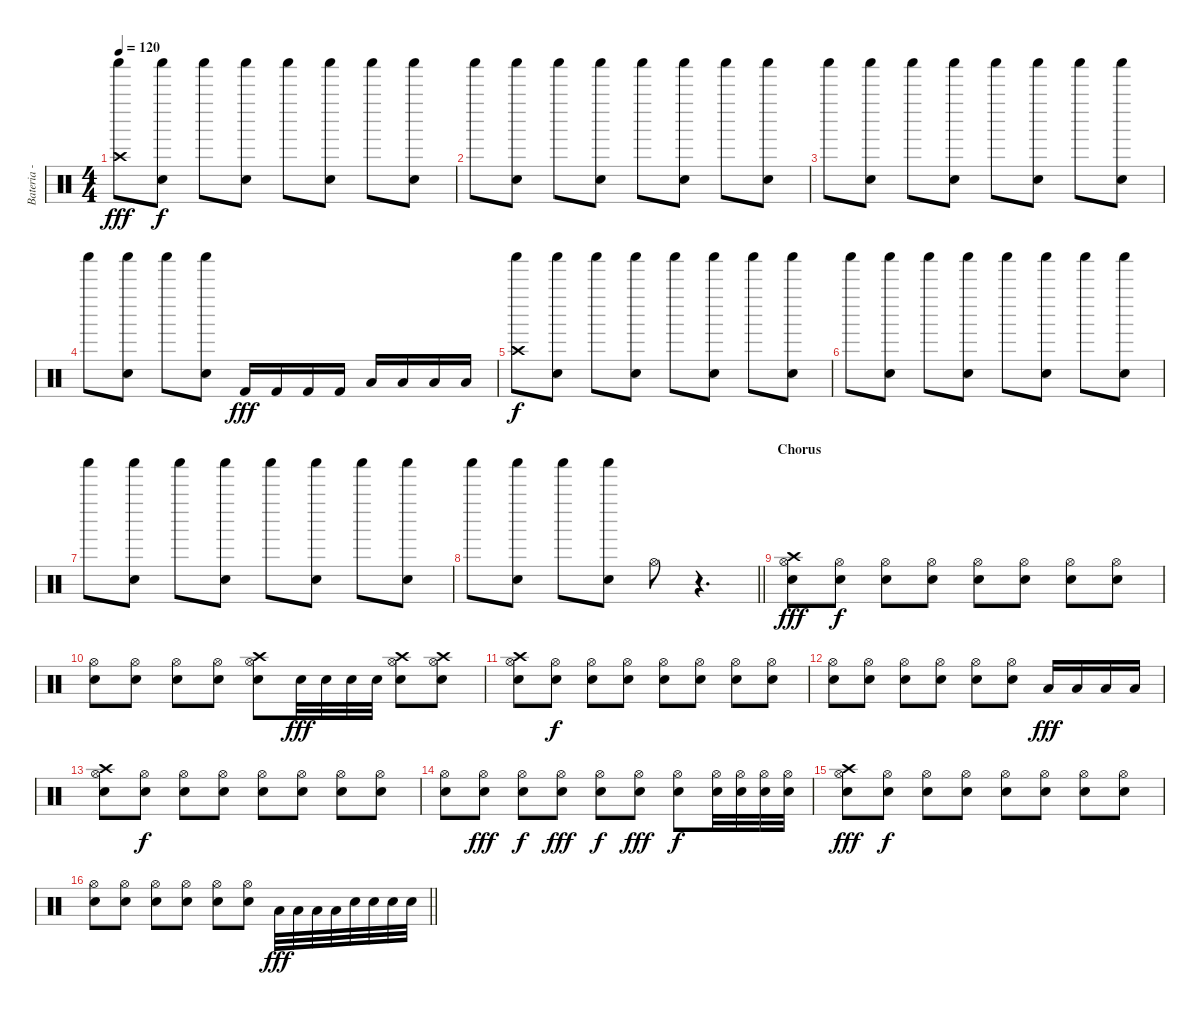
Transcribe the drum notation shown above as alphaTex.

\track ("Bateria - Larzon" "Bateria - ") {instrument percussion}
\staff {score}
\articulation defaults
\ts (4 4)
\tempo 120
\clef neutral
\ks c
("Crash high (hit)" "Shaker (hit)").8{dy fff} ("Shaker (hit)" "Electric Snare (hit)").8{dy f} "Shaker (hit)".8 ("Shaker (hit)" "Electric Snare (hit)").8 "Shaker (hit)".8 ("Shaker (hit)" "Electric Snare (hit)").8 "Shaker (hit)".8 ("Shaker (hit)" "Electric Snare (hit)").8 |
"Shaker (hit)".8 ("Shaker (hit)" "Electric Snare (hit)").8 "Shaker (hit)".8 ("Shaker (hit)" "Electric Snare (hit)").8 "Shaker (hit)".8 ("Shaker (hit)" "Electric Snare (hit)").8 "Shaker (hit)".8 ("Shaker (hit)" "Electric Snare (hit)").8 |
"Shaker (hit)".8 ("Shaker (hit)" "Electric Snare (hit)").8 "Shaker (hit)".8 ("Shaker (hit)" "Electric Snare (hit)").8 "Shaker (hit)".8 ("Shaker (hit)" "Electric Snare (hit)").8 "Shaker (hit)".8 ("Shaker (hit)" "Electric Snare (hit)").8 |
"Shaker (hit)".8 ("Shaker (hit)" "Electric Snare (hit)").8 "Shaker (hit)".8 ("Shaker (hit)" "Electric Snare (hit)").8 "Kick (hit) 2".16{dy fff} "Kick (hit) 2".16 "Kick (hit) 2".16 "Kick (hit) 2".16 "Low Tom (hit)".16 "Low Tom (hit)".16 "Low Tom (hit)".16 "Low Tom (hit)".16 |
("Crash high (hit)" "Shaker (hit)").8{dy f} ("Shaker (hit)" "Electric Snare (hit)").8 "Shaker (hit)".8 ("Shaker (hit)" "Electric Snare (hit)").8 "Shaker (hit)".8 ("Shaker (hit)" "Electric Snare (hit)").8 "Shaker (hit)".8 ("Shaker (hit)" "Electric Snare (hit)").8 |
"Shaker (hit)".8 ("Shaker (hit)" "Electric Snare (hit)").8 "Shaker (hit)".8 ("Shaker (hit)" "Electric Snare (hit)").8 "Shaker (hit)".8 ("Shaker (hit)" "Electric Snare (hit)").8 "Shaker (hit)".8 ("Shaker (hit)" "Electric Snare (hit)").8 |
"Shaker (hit)".8 ("Shaker (hit)" "Electric Snare (hit)").8 "Shaker (hit)".8 ("Shaker (hit)" "Electric Snare (hit)").8 "Shaker (hit)".8 ("Shaker (hit)" "Electric Snare (hit)").8 "Shaker (hit)".8 ("Shaker (hit)" "Electric Snare (hit)").8 |
\barLineRight lightlight "Shaker (hit)".8
("Shaker (hit)" "Electric Snare (hit)").8 "Shaker (hit)".8 ("Shaker (hit)" "Electric Snare (hit)").8 "Hi-Hat (open)".8 r.4{d} |
\section ("" "Chorus")
("Crash high (hit)" "Hi-Hat (open)" "Electric Snare (hit)").8{dy fff} ("Hi-Hat (open)" "Electric Snare (hit)").8{dy f} ("Hi-Hat (open)" "Electric Snare (hit)").8 ("Hi-Hat (open)" "Electric Snare (hit)").8 ("Hi-Hat (open)" "Electric Snare (hit)").8 ("Hi-Hat (open)" "Electric Snare (hit)").8 ("Hi-Hat (open)" "Electric Snare (hit)").8 ("Hi-Hat (open)" "Electric Snare (hit)").8 |
("Hi-Hat (open)" "Electric Snare (hit)").8 ("Hi-Hat (open)" "Electric Snare (hit)").8 ("Hi-Hat (open)" "Electric Snare (hit)").8 ("Hi-Hat (open)" "Electric Snare (hit)").8 ("Crash high (hit)" "Hi-Hat (open)" "Electric Snare (hit)").8 "Snare (hit) 2".32{dy fff} "Snare (hit) 2".32 "Snare (hit) 2".32 "Snare (hit) 2".32 ("Crash high (hit)" "Hi-Hat (open)" "Electric Snare (hit)").8 ("Crash high (hit)" "Hi-Hat (open)" "Electric Snare (hit)").8 |
("Crash high (hit)" "Hi-Hat (open)" "Electric Snare (hit)").8 ("Hi-Hat (open)" "Electric Snare (hit)").8{dy f} ("Hi-Hat (open)" "Electric Snare (hit)").8 ("Hi-Hat (open)" "Electric Snare (hit)").8 ("Hi-Hat (open)" "Electric Snare (hit)").8 ("Hi-Hat (open)" "Electric Snare (hit)").8 ("Hi-Hat (open)" "Electric Snare (hit)").8 ("Hi-Hat (open)" "Electric Snare (hit)").8 |
("Hi-Hat (open)" "Electric Snare (hit)").8 ("Hi-Hat (open)" "Electric Snare (hit)").8 ("Hi-Hat (open)" "Electric Snare (hit)").8 ("Hi-Hat (open)" "Electric Snare (hit)").8 ("Hi-Hat (open)" "Electric Snare (hit)").8 ("Hi-Hat (open)" "Electric Snare (hit)").8 "Low Tom (hit)".16{dy fff} "Low Tom (hit)".16 "Low Tom (hit)".16 "Low Tom (hit)".16 |
("Crash high (hit)" "Hi-Hat (open)" "Electric Snare (hit)").8 ("Hi-Hat (open)" "Electric Snare (hit)").8{dy f} ("Hi-Hat (open)" "Electric Snare (hit)").8 ("Hi-Hat (open)" "Electric Snare (hit)").8 ("Hi-Hat (open)" "Electric Snare (hit)").8 ("Hi-Hat (open)" "Electric Snare (hit)").8 ("Hi-Hat (open)" "Electric Snare (hit)").8 ("Hi-Hat (open)" "Electric Snare (hit)").8 |
("Hi-Hat (open)" "Electric Snare (hit)").8 ("Snare (hit) 2" "Hi-Hat (open)").8{dy fff} ("Hi-Hat (open)" "Electric Snare (hit)").8{dy f} ("Snare (hit) 2" "Hi-Hat (open)").8{dy fff} ("Hi-Hat (open)" "Electric Snare (hit)").8{dy f} ("Snare (hit) 2" "Hi-Hat (open)").8{dy fff} ("Hi-Hat (open)" "Electric Snare (hit)").8{dy f} ("Hi-Hat (open)" "Electric Snare (hit)").32 ("Hi-Hat (open)" "Electric Snare (hit)").32 ("Hi-Hat (open)" "Electric Snare (hit)").32 ("Hi-Hat (open)" "Electric Snare (hit)").32 |
("Crash high (hit)" "Hi-Hat (open)" "Electric Snare (hit)").8{dy fff} ("Hi-Hat (open)" "Electric Snare (hit)").8{dy f} ("Hi-Hat (open)" "Electric Snare (hit)").8 ("Hi-Hat (open)" "Electric Snare (hit)").8 ("Hi-Hat (open)" "Electric Snare (hit)").8 ("Hi-Hat (open)" "Electric Snare (hit)").8 ("Hi-Hat (open)" "Electric Snare (hit)").8 ("Hi-Hat (open)" "Electric Snare (hit)").8 |
\barLineRight lightlight
("Hi-Hat (open)" "Electric Snare (hit)").8 ("Hi-Hat (open)" "Electric Snare (hit)").8 ("Hi-Hat (open)" "Electric Snare (hit)").8 ("Hi-Hat (open)" "Electric Snare (hit)").8 ("Hi-Hat (open)" "Electric Snare (hit)").8 ("Hi-Hat (open)" "Electric Snare (hit)").8 "Low Tom (hit)".32{dy fff} "Low Tom (hit)".32 "Low Tom (hit)".32 "Low Tom (hit)".32 "Electric Snare (hit)".32 "Electric Snare (hit)".32 "Electric Snare (hit)".32 "Electric Snare (hit)".32
